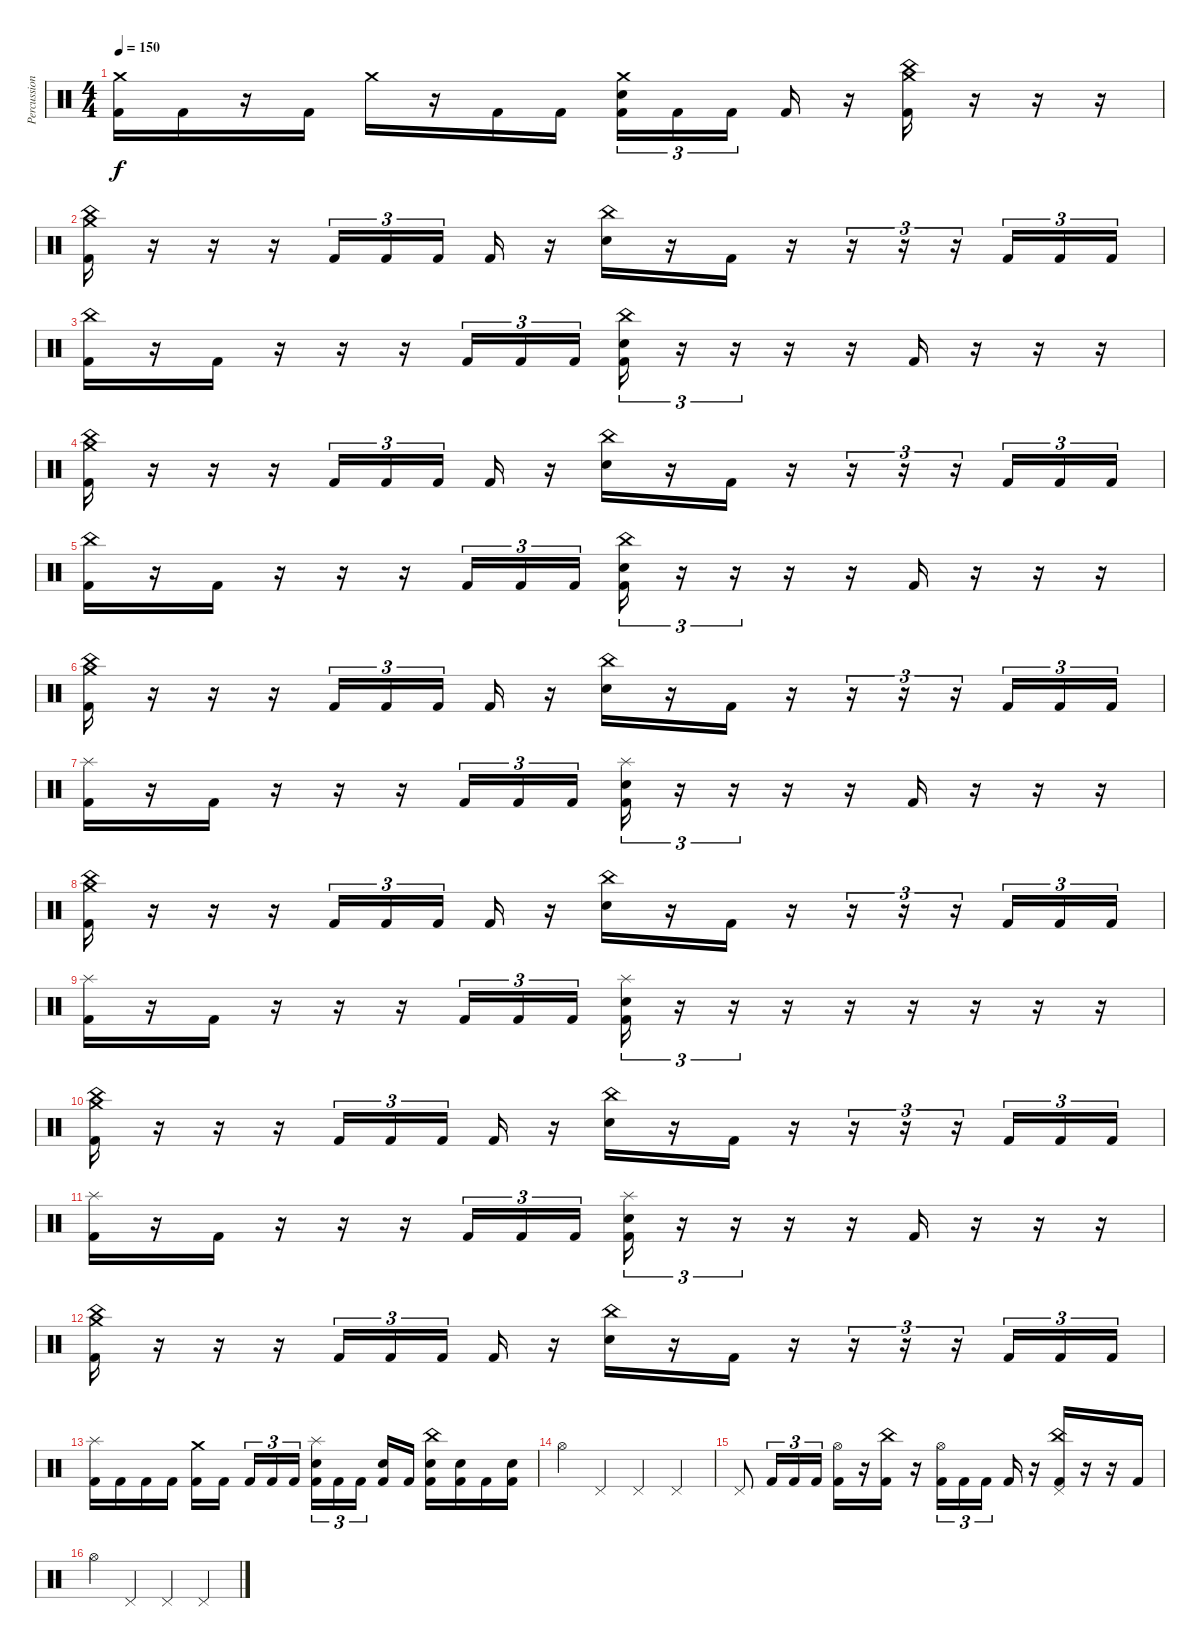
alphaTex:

\track ("Percussion" "Percussion") {instrument percussion}
\staff {score}
\articulation defaults
\ts (4 4)
\tempo 150
\clef neutral
\ks c
("Crash medium (hit)" "Kick (hit) 2").16{dy f} "Kick (hit) 2".16 r.16 "Kick (hit) 2".16 "Crash medium (hit)".16 r.16 "Kick (hit) 2".16 "Kick (hit) 2".16 ("Crash medium (hit)" "Electric Snare (hit)" "Kick (hit) 2").16{tu (3 2)} "Kick (hit) 2".16{tu (3 2)} "Kick (hit) 2".16{tu (3 2) beam splitsecondary} "Kick (hit) 2".16 r.16 ("Crash medium (hit)" "China (hit)" "Kick (hit) 2").16 r.16 r.16 r.16 |
("China (hit)" "Crash medium (hit)" "Kick (hit) 2").16 r.16 r.16 r.16 "Kick (hit) 2".16{tu (3 2)} "Kick (hit) 2".16{tu (3 2)} "Kick (hit) 2".16{tu (3 2) beam splitsecondary} "Kick (hit) 2".16 r.16 ("China (hit)" "Electric Snare (hit)").16 r.16 "Kick (hit) 2".16 r.16 r.16{tu (3 2)} r.16{tu (3 2)} r.16{tu (3 2)} "Kick (hit) 2".16{tu (3 2)} "Kick (hit) 2".16{tu (3 2)} "Kick (hit) 2".16{tu (3 2)} |
("China (hit)" "Kick (hit) 2").16 r.16 "Kick (hit) 2".16 r.16 r.16 r.16 "Kick (hit) 2".16{tu (3 2)} "Kick (hit) 2".16{tu (3 2)} "Kick (hit) 2".16{tu (3 2)} ("China (hit)" "Electric Snare (hit)" "Kick (hit) 2").16{tu (3 2)} r.16{tu (3 2)} r.16{tu (3 2)} r.16 r.16 "Kick (hit) 2".16 r.16 r.16 r.16 |
("China (hit)" "Crash medium (hit)" "Kick (hit) 2").16 r.16 r.16 r.16 "Kick (hit) 2".16{tu (3 2)} "Kick (hit) 2".16{tu (3 2)} "Kick (hit) 2".16{tu (3 2) beam splitsecondary} "Kick (hit) 2".16 r.16 ("China (hit)" "Electric Snare (hit)").16 r.16 "Kick (hit) 2".16 r.16 r.16{tu (3 2)} r.16{tu (3 2)} r.16{tu (3 2)} "Kick (hit) 2".16{tu (3 2)} "Kick (hit) 2".16{tu (3 2)} "Kick (hit) 2".16{tu (3 2)} |
("China (hit)" "Kick (hit) 2").16 r.16 "Kick (hit) 2".16 r.16 r.16 r.16 "Kick (hit) 2".16{tu (3 2)} "Kick (hit) 2".16{tu (3 2)} "Kick (hit) 2".16{tu (3 2)} ("China (hit)" "Electric Snare (hit)" "Kick (hit) 2").16{tu (3 2)} r.16{tu (3 2)} r.16{tu (3 2)} r.16 r.16 "Kick (hit) 2".16 r.16 r.16 r.16 |
("China (hit)" "Crash medium (hit)" "Kick (hit) 2").16 r.16 r.16 r.16 "Kick (hit) 2".16{tu (3 2)} "Kick (hit) 2".16{tu (3 2)} "Kick (hit) 2".16{tu (3 2) beam splitsecondary} "Kick (hit) 2".16 r.16 ("China (hit)" "Electric Snare (hit)").16 r.16 "Kick (hit) 2".16 r.16 r.16{tu (3 2)} r.16{tu (3 2)} r.16{tu (3 2)} "Kick (hit) 2".16{tu (3 2)} "Kick (hit) 2".16{tu (3 2)} "Kick (hit) 2".16{tu (3 2)} |
("Splash (hit)" "Kick (hit) 2").16 r.16 "Kick (hit) 2".16 r.16 r.16 r.16 "Kick (hit) 2".16{tu (3 2)} "Kick (hit) 2".16{tu (3 2)} "Kick (hit) 2".16{tu (3 2)} ("Splash (hit)" "Electric Snare (hit)" "Kick (hit) 2").16{tu (3 2)} r.16{tu (3 2)} r.16{tu (3 2)} r.16 r.16 "Kick (hit) 2".16 r.16 r.16 r.16 |
("China (hit)" "Crash medium (hit)" "Kick (hit) 2").16 r.16 r.16 r.16 "Kick (hit) 2".16{tu (3 2)} "Kick (hit) 2".16{tu (3 2)} "Kick (hit) 2".16{tu (3 2) beam splitsecondary} "Kick (hit) 2".16 r.16 ("China (hit)" "Electric Snare (hit)").16 r.16 "Kick (hit) 2".16 r.16 r.16{tu (3 2)} r.16{tu (3 2)} r.16{tu (3 2)} "Kick (hit) 2".16{tu (3 2)} "Kick (hit) 2".16{tu (3 2)} "Kick (hit) 2".16{tu (3 2)} |
("Splash (hit)" "Kick (hit) 2").16 r.16 "Kick (hit) 2".16 r.16 r.16 r.16 "Kick (hit) 2".16{tu (3 2)} "Kick (hit) 2".16{tu (3 2)} "Kick (hit) 2".16{tu (3 2)} ("Splash (hit)" "Electric Snare (hit)" "Kick (hit) 2").16{tu (3 2)} r.16{tu (3 2)} r.16{tu (3 2)} r.16 r.16 r.16 r.16 r.16 r.16 |
("China (hit)" "Crash medium (hit)" "Kick (hit) 2").16 r.16 r.16 r.16 "Kick (hit) 2".16{tu (3 2)} "Kick (hit) 2".16{tu (3 2)} "Kick (hit) 2".16{tu (3 2) beam splitsecondary} "Kick (hit) 2".16 r.16 ("China (hit)" "Electric Snare (hit)").16 r.16 "Kick (hit) 2".16 r.16 r.16{tu (3 2)} r.16{tu (3 2)} r.16{tu (3 2)} "Kick (hit) 2".16{tu (3 2)} "Kick (hit) 2".16{tu (3 2)} "Kick (hit) 2".16{tu (3 2)} |
("Splash (hit)" "Kick (hit) 2").16 r.16 "Kick (hit) 2".16 r.16 r.16 r.16 "Kick (hit) 2".16{tu (3 2)} "Kick (hit) 2".16{tu (3 2)} "Kick (hit) 2".16{tu (3 2)} ("Splash (hit)" "Electric Snare (hit)" "Kick (hit) 2").16{tu (3 2)} r.16{tu (3 2)} r.16{tu (3 2)} r.16 r.16 "Kick (hit) 2".16 r.16 r.16 r.16 |
("China (hit)" "Crash medium (hit)" "Kick (hit) 2").16 r.16 r.16 r.16 "Kick (hit) 2".16{tu (3 2)} "Kick (hit) 2".16{tu (3 2)} "Kick (hit) 2".16{tu (3 2) beam splitsecondary} "Kick (hit) 2".16 r.16 ("China (hit)" "Electric Snare (hit)").16 r.16 "Kick (hit) 2".16 r.16 r.16{tu (3 2)} r.16{tu (3 2)} r.16{tu (3 2)} "Kick (hit) 2".16{tu (3 2)} "Kick (hit) 2".16{tu (3 2)} "Kick (hit) 2".16{tu (3 2)} |
("Splash (hit)" "Kick (hit) 2").16 "Kick (hit) 2".16 "Kick (hit) 2".16 "Kick (hit) 2".16 ("Crash medium (hit)" "Kick (hit) 2").16 "Kick (hit) 2".16{beam splitsecondary} "Kick (hit) 2".16{tu (3 2)} "Kick (hit) 2".16{tu (3 2)} "Kick (hit) 2".16{tu (3 2)} ("Splash (hit)" "Electric Snare (hit)" "Kick (hit) 2").16{tu (3 2)} "Kick (hit) 2".16{tu (3 2)} "Kick (hit) 2".16{tu (3 2) beam splitsecondary} ("Electric Snare (hit)" "Kick (hit) 2").16 "Kick (hit) 2".16 ("China (hit)" "Electric Snare (hit)" "Kick (hit) 2").16 ("Electric Snare (hit)" "Kick (hit) 2").16 "Kick (hit) 2".16 ("Electric Snare (hit)" "Kick (hit) 2").16 |
"Hi-Hat (open)".4 "Pedal Hi-Hat (hit)".4 "Pedal Hi-Hat (hit)".4 "Pedal Hi-Hat (hit)".4 |
"Pedal Hi-Hat (hit)".8 "Kick (hit) 2".16{tu (3 2)} "Kick (hit) 2".16{tu (3 2)} "Kick (hit) 2".16{tu (3 2)} ("Hi-Hat (open)" "Kick (hit) 2").16 r.16 ("China (hit)" "Kick (hit) 2").16 r.16 ("Hi-Hat (open)" "Kick (hit) 2").16{tu (3 2)} "Kick (hit) 2".16{tu (3 2)} "Kick (hit) 2".16{tu (3 2) beam splitsecondary} "Kick (hit) 2".16 r.16 ("China (hit)" "Pedal Hi-Hat (hit)" "Kick (hit) 2").16 r.16 r.16 "Kick (hit) 2".16 |
"Hi-Hat (open)".4 "Pedal Hi-Hat (hit)".4 "Pedal Hi-Hat (hit)".4 "Pedal Hi-Hat (hit)".4
